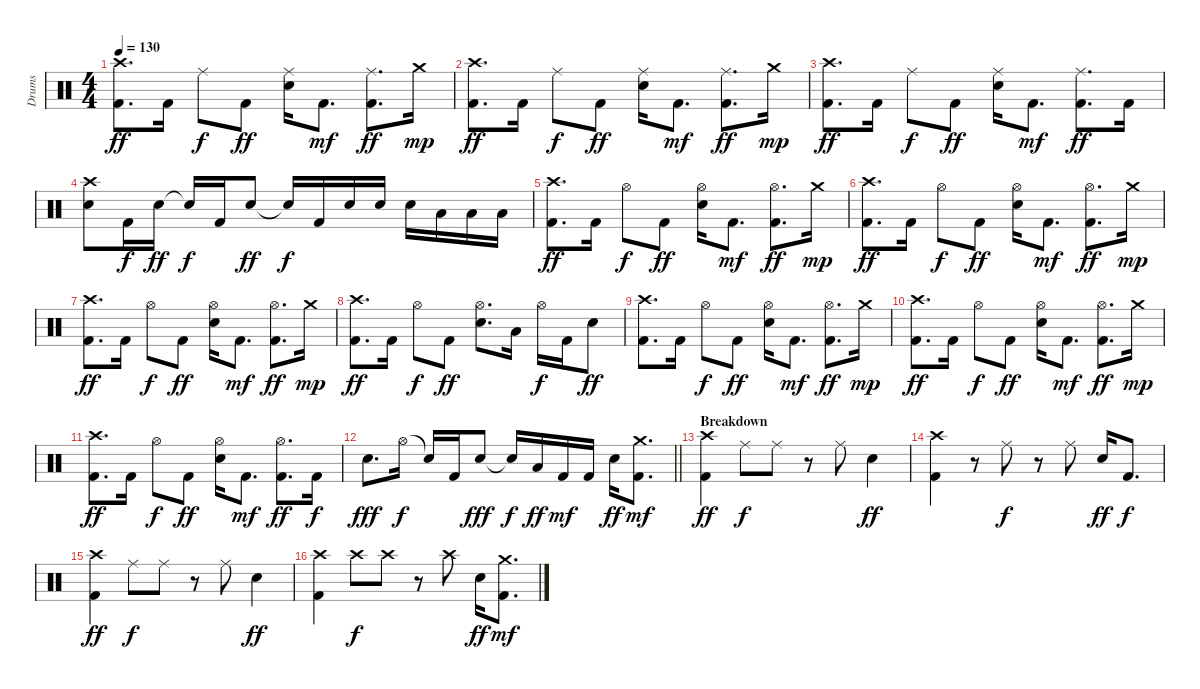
\track ("Drums" "Drums") {instrument percussion}
\staff {score}
\articulation defaults
\ts (4 4)
\tempo 130
\clef neutral
\ks c
("Crash high (hit)" "Kick (hit) 2").8{d dy ff} "Kick (hit) 2".16 "Ride (middle)".8{dy f} "Kick (hit) 2".8{dy ff} ("Ride (middle)" "Electric Snare (hit)").16 "Kick (hit) 2".8{d dy mf} ("Ride (middle)" "Kick (hit) 2").8{d dy ff} "Crash medium (hit)".16{dy mp} |
("Crash high (hit)" "Kick (hit) 2").8{d dy ff} "Kick (hit) 2".16 "Ride (middle)".8{dy f} "Kick (hit) 2".8{dy ff} ("Ride (middle)" "Electric Snare (hit)").16 "Kick (hit) 2".8{d dy mf} ("Ride (middle)" "Kick (hit) 2").8{d dy ff} "Crash medium (hit)".16{dy mp} |
("Crash high (hit)" "Kick (hit) 2").8{d dy ff} "Kick (hit) 2".16 "Ride (middle)".8{dy f} "Kick (hit) 2".8{dy ff} ("Ride (middle)" "Electric Snare (hit)").16 "Kick (hit) 2".8{d dy mf} ("Ride (middle)" "Kick (hit) 2").8{d dy ff} "Kick (hit) 2".16 |
("Crash high (hit)" "Electric Snare (hit)").8 "Kick (hit) 2".16{dy f} "Electric Snare (hit)".16{dy ff} "Snare (hit)"{t}.16{dy f} "Kick (hit) 2".16 "Electric Snare (hit)".8{dy ff} "Snare (hit)"{t}.16{dy f} "Kick (hit) 2".16 "Electric Snare (hit)".16 "Electric Snare (hit)".16 "Electric Snare (hit)".16 "Low Tom (hit)".16 "Low Tom (hit)".16 "Low Tom (hit)".16 |
("Crash high (hit)" "Kick (hit) 2").8{d dy ff} "Kick (hit) 2".16 "Hi-Hat (open)".8{dy f} "Kick (hit) 2".8{dy ff} ("Hi-Hat (open)" "Electric Snare (hit)").16 "Kick (hit) 2".8{d dy mf} ("Hi-Hat (open)" "Kick (hit) 2").8{d dy ff} "Crash medium (hit)".16{dy mp} |
("Crash high (hit)" "Kick (hit) 2").8{d dy ff} "Kick (hit) 2".16 "Hi-Hat (open)".8{dy f} "Kick (hit) 2".8{dy ff} ("Hi-Hat (open)" "Electric Snare (hit)").16 "Kick (hit) 2".8{d dy mf} ("Hi-Hat (open)" "Kick (hit) 2").8{d dy ff} "Crash medium (hit)".16{dy mp} |
("Crash high (hit)" "Kick (hit) 2").8{d dy ff} "Kick (hit) 2".16 "Hi-Hat (open)".8{dy f} "Kick (hit) 2".8{dy ff} ("Hi-Hat (open)" "Electric Snare (hit)").16 "Kick (hit) 2".8{d dy mf} ("Hi-Hat (open)" "Kick (hit) 2").8{d dy ff} "Crash medium (hit)".16{dy mp} |
("Crash high (hit)" "Kick (hit) 2").8{d dy ff} "Kick (hit) 2".16 "Hi-Hat (open)".8{dy f} "Kick (hit) 2".8{dy ff} ("Hi-Hat (open)" "Electric Snare (hit)").8{d} "Low Tom (hit)".16 "Hi-Hat (open)".16{dy f} "Kick (hit) 2".16 "Electric Snare (hit)".8{dy ff} |
("Crash high (hit)" "Kick (hit) 2").8{d} "Kick (hit) 2".16 "Hi-Hat (open)".8{dy f} "Kick (hit) 2".8{dy ff} ("Hi-Hat (open)" "Electric Snare (hit)").16 "Kick (hit) 2".8{d dy mf} ("Hi-Hat (open)" "Kick (hit) 2").8{d dy ff} "Crash medium (hit)".16{dy mp} |
("Crash high (hit)" "Kick (hit) 2").8{d dy ff} "Kick (hit) 2".16 "Hi-Hat (open)".8{dy f} "Kick (hit) 2".8{dy ff} ("Hi-Hat (open)" "Electric Snare (hit)").16 "Kick (hit) 2".8{d dy mf} ("Hi-Hat (open)" "Kick (hit) 2").8{d dy ff} "Crash medium (hit)".16{dy mp} |
("Crash high (hit)" "Kick (hit) 2").8{d dy ff} "Kick (hit) 2".16 "Hi-Hat (open)".8{dy f} "Kick (hit) 2".8{dy ff} ("Hi-Hat (open)" "Electric Snare (hit)").16 "Kick (hit) 2".8{d dy mf} ("Hi-Hat (open)" "Kick (hit) 2").8{d dy ff} "Kick (hit) 2".16{dy f} |
\barLineRight lightlight "Electric Snare (hit)".8{d dy fff} "Hi-Hat (open)".16{dy f} "Snare (hit)"{t}.16 "Kick (hit) 2".16 "Electric Snare (hit)".8{dy fff} "Snare (hit)"{t}.16{dy f} "Low Tom (hit)".16{dy ff} "Kick (hit) 2".16{dy mf} "Kick (hit) 2".16 "Electric Snare (hit)".16{dy ff}
("Crash medium (hit)" "Kick (hit) 2").8{d dy mf} |
\section ("" "Breakdown")
("Crash high (hit)" "Kick (hit) 2").4{dy ff} "Ride (middle)".8{dy f} "Ride (middle)".8 r.8 "Ride (middle)".8 "Electric Snare (hit)".4{dy ff} |
("Crash high (hit)" "Kick (hit) 2").4 r.8 "Ride (middle)".8{dy f} r.8 "Ride (middle)".8 "Electric Snare (hit)".16{dy ff} "Kick (hit) 2".8{d dy f} |
("Crash high (hit)" "Kick (hit) 2").4{dy ff} "Ride (middle)".8{dy f} "Ride (middle)".8 r.8 "Ride (middle)".8 "Electric Snare (hit)".4{dy ff} |
("Crash high (hit)" "Kick (hit) 2").4 "Crash high (hit)".8{dy f} "Crash high (hit)".8 r.8 "Crash high (hit)".8 "Electric Snare (hit)".16{dy ff} ("Crash medium (hit)" "Kick (hit) 2").8{d dy mf}
